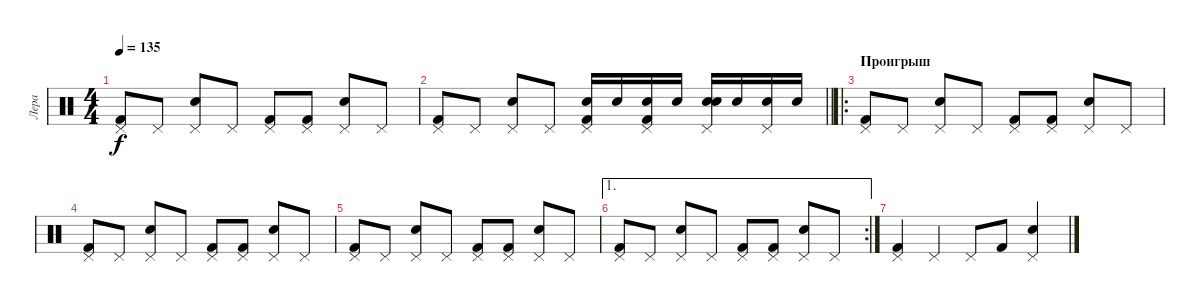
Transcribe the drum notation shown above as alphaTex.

\track ("Лера" "Лера") {instrument percussion}
\staff {score}
\articulation defaults
\ts (4 4)
\tempo 135
\clef neutral
\ks c
("Pedal Hi-Hat (hit)" "Kick (hit) 2").8{dy f} "Pedal Hi-Hat (hit)".8 ("Pedal Hi-Hat (hit)" "Snare (hit) 2").8 "Pedal Hi-Hat (hit)".8 ("Pedal Hi-Hat (hit)" "Kick (hit) 2").8 ("Pedal Hi-Hat (hit)" "Kick (hit) 2").8 ("Pedal Hi-Hat (hit)" "Snare (hit) 2").8 "Pedal Hi-Hat (hit)".8 |
\barLineRight lightlight
("Pedal Hi-Hat (hit)" "Kick (hit) 2").8 "Pedal Hi-Hat (hit)".8 ("Pedal Hi-Hat (hit)" "Snare (hit) 2").8 "Pedal Hi-Hat (hit)".8 ("Electric Snare (hit)" "Pedal Hi-Hat (hit)" "Kick (hit) 2").16 "Electric Snare (hit)".16 ("Electric Snare (hit)" "Pedal Hi-Hat (hit)" "Kick (hit) 2").16 "Electric Snare (hit)".16 ("Electric Snare (hit)" "Pedal Hi-Hat (hit)" "Snare (hit) 2").16 "Electric Snare (hit)".16 ("Electric Snare (hit)" "Pedal Hi-Hat (hit)").16 "Electric Snare (hit)".16 |
\ro
\section ("" "Проигрыш")
("Pedal Hi-Hat (hit)" "Kick (hit) 2").8 "Pedal Hi-Hat (hit)".8 ("Pedal Hi-Hat (hit)" "Snare (hit) 2").8 "Pedal Hi-Hat (hit)".8 ("Pedal Hi-Hat (hit)" "Kick (hit) 2").8 ("Pedal Hi-Hat (hit)" "Kick (hit) 2").8 ("Pedal Hi-Hat (hit)" "Snare (hit) 2").8 "Pedal Hi-Hat (hit)".8 |
("Pedal Hi-Hat (hit)" "Kick (hit) 2").8 "Pedal Hi-Hat (hit)".8 ("Pedal Hi-Hat (hit)" "Snare (hit) 2").8 "Pedal Hi-Hat (hit)".8 ("Pedal Hi-Hat (hit)" "Kick (hit) 2").8 ("Pedal Hi-Hat (hit)" "Kick (hit) 2").8 ("Pedal Hi-Hat (hit)" "Snare (hit) 2").8 "Pedal Hi-Hat (hit)".8 |
("Pedal Hi-Hat (hit)" "Kick (hit) 2").8 "Pedal Hi-Hat (hit)".8 ("Pedal Hi-Hat (hit)" "Snare (hit) 2").8 "Pedal Hi-Hat (hit)".8 ("Pedal Hi-Hat (hit)" "Kick (hit) 2").8 ("Pedal Hi-Hat (hit)" "Kick (hit) 2").8 ("Pedal Hi-Hat (hit)" "Snare (hit) 2").8 "Pedal Hi-Hat (hit)".8 |
\ae 1
\rc 2
("Pedal Hi-Hat (hit)" "Kick (hit) 2").8 "Pedal Hi-Hat (hit)".8 ("Pedal Hi-Hat (hit)" "Snare (hit) 2").8 "Pedal Hi-Hat (hit)".8 ("Pedal Hi-Hat (hit)" "Kick (hit) 2").8 ("Pedal Hi-Hat (hit)" "Kick (hit) 2").8 ("Pedal Hi-Hat (hit)" "Snare (hit) 2").8 "Pedal Hi-Hat (hit)".8 |
("Pedal Hi-Hat (hit)" "Kick (hit) 2").4 "Pedal Hi-Hat (hit)".4 "Pedal Hi-Hat (hit)".8 "Kick (hit) 2".8 ("Pedal Hi-Hat (hit)" "Snare (hit) 2").4
